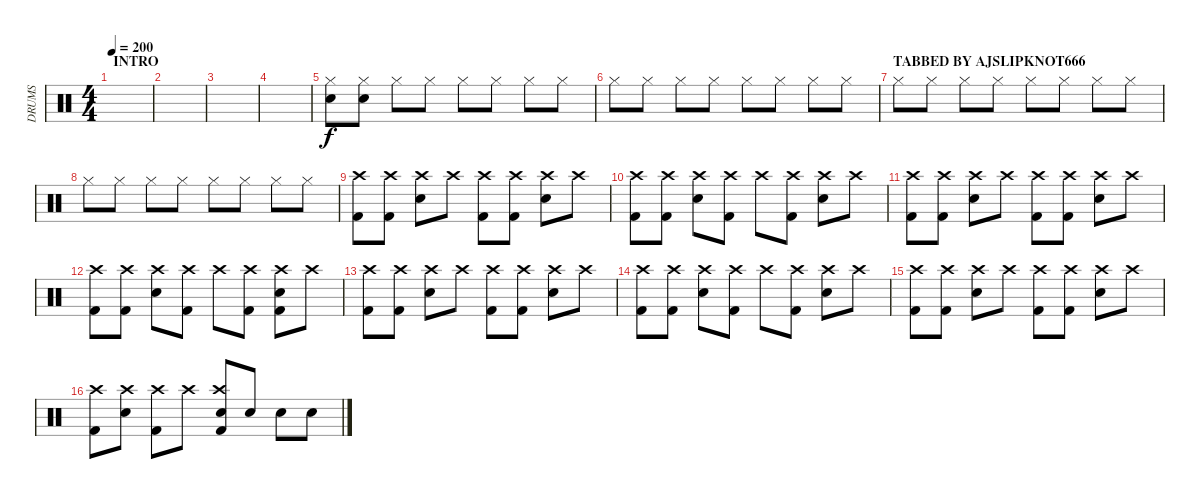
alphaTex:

\track ("DRUMS" "DRUMS") {instrument percussion}
\staff {score}
\articulation defaults
\ts (4 4)
\section ("" "INTRO")
\tempo 200
\clef neutral
\ks c
|
|
|
|
("Snare (hit) 2" "Hi-Hat (closed)").8 ("Snare (hit) 2" "Hi-Hat (closed)").8 "Hi-Hat (closed)".8 "Hi-Hat (closed)".8 "Hi-Hat (closed)".8 "Hi-Hat (closed)".8 "Hi-Hat (closed)".8 "Hi-Hat (closed)".8 |
"Hi-Hat (closed)".8 "Hi-Hat (closed)".8 "Hi-Hat (closed)".8 "Hi-Hat (closed)".8 "Hi-Hat (closed)".8 "Hi-Hat (closed)".8 "Hi-Hat (closed)".8 "Hi-Hat (closed)".8 |
\section ("" "TABBED BY AJSLIPKNOT666")
"Hi-Hat (closed)".8 "Hi-Hat (closed)".8 "Hi-Hat (closed)".8 "Hi-Hat (closed)".8 "Hi-Hat (closed)".8 "Hi-Hat (closed)".8 "Hi-Hat (closed)".8 "Hi-Hat (closed)".8 |
"Hi-Hat (closed)".8 "Hi-Hat (closed)".8 "Hi-Hat (closed)".8 "Hi-Hat (closed)".8 "Hi-Hat (closed)".8 "Hi-Hat (closed)".8 "Hi-Hat (closed)".8 "Hi-Hat (closed)".8 |
("Crash high (hit)" "Kick (hit) 2").8 ("Crash high (hit)" "Kick (hit) 2").8 ("Crash high (hit)" "Snare (hit) 2").8 "Crash high (hit)".8 ("Crash high (hit)" "Kick (hit) 2").8 ("Crash high (hit)" "Kick (hit) 2").8 ("Crash high (hit)" "Snare (hit) 2").8 "Crash high (hit)".8 |
("Crash high (hit)" "Kick (hit) 2").8 ("Crash high (hit)" "Kick (hit) 2").8 ("Crash high (hit)" "Snare (hit) 2").8 ("Crash high (hit)" "Kick (hit) 2").8 "Crash high (hit)".8 ("Crash high (hit)" "Kick (hit) 2").8 ("Crash high (hit)" "Snare (hit) 2").8 "Crash high (hit)".8 |
("Crash high (hit)" "Kick (hit) 2").8 ("Crash high (hit)" "Kick (hit) 2").8 ("Crash high (hit)" "Snare (hit) 2").8 "Crash high (hit)".8 ("Crash high (hit)" "Kick (hit) 2").8 ("Crash high (hit)" "Kick (hit) 2").8 ("Crash high (hit)" "Snare (hit) 2").8 "Crash high (hit)".8 |
("Crash high (hit)" "Kick (hit) 2").8 ("Crash high (hit)" "Kick (hit) 2").8 ("Crash high (hit)" "Snare (hit) 2").8 ("Crash high (hit)" "Kick (hit) 2").8 "Crash high (hit)".8 ("Crash high (hit)" "Kick (hit) 2").8 ("Crash high (hit)" "Snare (hit) 2" "Kick (hit) 2").8 "Crash high (hit)".8 |
("Crash high (hit)" "Kick (hit) 2").8 ("Crash high (hit)" "Kick (hit) 2").8 ("Crash high (hit)" "Snare (hit) 2").8 "Crash high (hit)".8 ("Crash high (hit)" "Kick (hit) 2").8 ("Crash high (hit)" "Kick (hit) 2").8 ("Crash high (hit)" "Snare (hit) 2").8 "Crash high (hit)".8 |
("Crash high (hit)" "Kick (hit) 2").8 ("Crash high (hit)" "Kick (hit) 2").8 ("Crash high (hit)" "Snare (hit) 2").8 ("Crash high (hit)" "Kick (hit) 2").8 "Crash high (hit)".8 ("Crash high (hit)" "Kick (hit) 2").8 ("Crash high (hit)" "Snare (hit) 2").8 "Crash high (hit)".8 |
("Crash high (hit)" "Kick (hit) 2").8 ("Crash high (hit)" "Kick (hit) 2").8 ("Crash high (hit)" "Snare (hit) 2").8 "Crash high (hit)".8 ("Crash high (hit)" "Kick (hit) 2").8 ("Crash high (hit)" "Kick (hit) 2").8 ("Crash high (hit)" "Snare (hit) 2").8 "Crash high (hit)".8 |
("Crash high (hit)" "Kick (hit) 2").8 ("Crash high (hit)" "Snare (hit) 2").8 ("Crash high (hit)" "Kick (hit) 2").8 "Crash high (hit)".8 ("Crash high (hit)" "Snare (hit) 2" "Kick (hit) 2").8 "Snare (hit) 2".8 "Snare (hit) 2".8 "Snare (hit) 2".8
